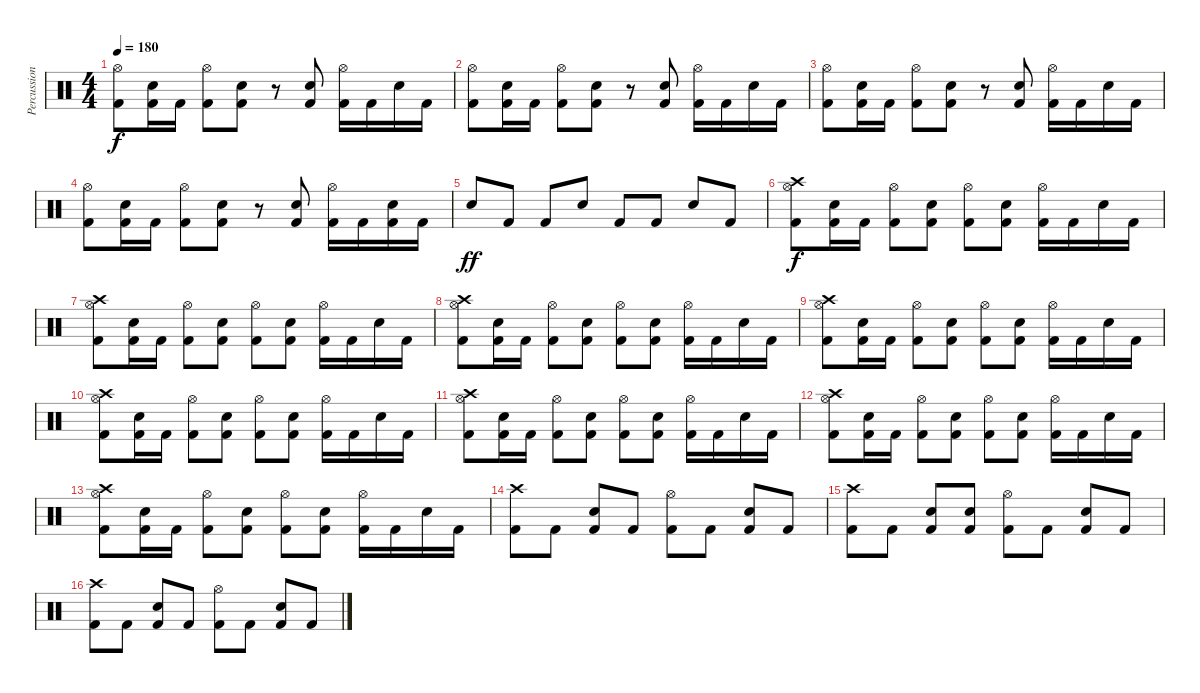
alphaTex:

\track ("Percussion" "Percussion") {instrument percussion}
\staff {score}
\articulation defaults
\ts (4 4)
\tempo 180
\clef neutral
\ks c
("Hi-Hat (open)" "Kick (hit) 2").8{dy f} ("Electric Snare (hit)" "Kick (hit) 2").16 "Kick (hit) 2".16 ("Hi-Hat (open)" "Kick (hit) 2").8 ("Electric Snare (hit)" "Kick (hit) 2").8 r.8 ("Electric Snare (hit)" "Kick (hit) 2").8 ("Hi-Hat (open)" "Kick (hit) 2").16 "Kick (hit) 2".16 "Electric Snare (hit)".16 "Kick (hit) 2".16 |
("Hi-Hat (open)" "Kick (hit) 2").8 ("Electric Snare (hit)" "Kick (hit) 2").16 "Kick (hit) 2".16 ("Hi-Hat (open)" "Kick (hit) 2").8 ("Electric Snare (hit)" "Kick (hit) 2").8 r.8 ("Electric Snare (hit)" "Kick (hit) 2").8 ("Hi-Hat (open)" "Kick (hit) 2").16 "Kick (hit) 2".16 "Electric Snare (hit)".16 "Kick (hit) 2".16 |
("Hi-Hat (open)" "Kick (hit) 2").8 ("Electric Snare (hit)" "Kick (hit) 2").16 "Kick (hit) 2".16 ("Hi-Hat (open)" "Kick (hit) 2").8 ("Electric Snare (hit)" "Kick (hit) 2").8 r.8 ("Electric Snare (hit)" "Kick (hit) 2").8 ("Hi-Hat (open)" "Kick (hit) 2").16 "Kick (hit) 2".16 "Electric Snare (hit)".16 "Kick (hit) 2".16 |
("Hi-Hat (open)" "Kick (hit) 2").8 ("Electric Snare (hit)" "Kick (hit) 2").16 "Kick (hit) 2".16 ("Hi-Hat (open)" "Kick (hit) 2").8 ("Electric Snare (hit)" "Kick (hit) 2").8 r.8 ("Electric Snare (hit)" "Kick (hit) 2").8 ("Hi-Hat (open)" "Kick (hit) 2").16 "Kick (hit) 2".16 ("Electric Snare (hit)" "Kick (hit) 2").16 "Kick (hit) 2".16 |
"Electric Snare (hit)".8{dy ff} "Kick (hit) 2".8 "Kick (hit) 2".8 "Electric Snare (hit)".8 "Kick (hit) 2".8 "Kick (hit) 2".8 "Electric Snare (hit)".8 "Kick (hit) 2".8 |
("Hi-Hat (open)" "Kick (hit) 2" "Crash high (hit)").8{dy f} ("Electric Snare (hit)" "Kick (hit) 2").16 "Kick (hit) 2".16 ("Hi-Hat (open)" "Kick (hit) 2").8 ("Electric Snare (hit)" "Kick (hit) 2").8 ("Hi-Hat (open)" "Kick (hit) 2").8 ("Electric Snare (hit)" "Kick (hit) 2").8 ("Hi-Hat (open)" "Kick (hit) 2").16 "Kick (hit) 2".16 "Electric Snare (hit)".16 "Kick (hit) 2".16 |
("Hi-Hat (open)" "Kick (hit) 2" "Crash high (hit)").8 ("Electric Snare (hit)" "Kick (hit) 2").16 "Kick (hit) 2".16 ("Hi-Hat (open)" "Kick (hit) 2").8 ("Electric Snare (hit)" "Kick (hit) 2").8 ("Hi-Hat (open)" "Kick (hit) 2").8 ("Electric Snare (hit)" "Kick (hit) 2").8 ("Hi-Hat (open)" "Kick (hit) 2").16 "Kick (hit) 2".16 "Electric Snare (hit)".16 "Kick (hit) 2".16 |
("Hi-Hat (open)" "Kick (hit) 2" "Crash high (hit)").8 ("Electric Snare (hit)" "Kick (hit) 2").16 "Kick (hit) 2".16 ("Hi-Hat (open)" "Kick (hit) 2").8 ("Electric Snare (hit)" "Kick (hit) 2").8 ("Hi-Hat (open)" "Kick (hit) 2").8 ("Electric Snare (hit)" "Kick (hit) 2").8 ("Hi-Hat (open)" "Kick (hit) 2").16 "Kick (hit) 2".16 "Electric Snare (hit)".16 "Kick (hit) 2".16 |
("Hi-Hat (open)" "Kick (hit) 2" "Crash high (hit)").8 ("Electric Snare (hit)" "Kick (hit) 2").16 "Kick (hit) 2".16 ("Hi-Hat (open)" "Kick (hit) 2").8 ("Electric Snare (hit)" "Kick (hit) 2").8 ("Hi-Hat (open)" "Kick (hit) 2").8 ("Electric Snare (hit)" "Kick (hit) 2").8 ("Hi-Hat (open)" "Kick (hit) 2").16 "Kick (hit) 2".16 "Electric Snare (hit)".16 "Kick (hit) 2".16 |
("Hi-Hat (open)" "Kick (hit) 2" "Crash high (hit)").8 ("Electric Snare (hit)" "Kick (hit) 2").16 "Kick (hit) 2".16 ("Hi-Hat (open)" "Kick (hit) 2").8 ("Electric Snare (hit)" "Kick (hit) 2").8 ("Hi-Hat (open)" "Kick (hit) 2").8 ("Electric Snare (hit)" "Kick (hit) 2").8 ("Hi-Hat (open)" "Kick (hit) 2").16 "Kick (hit) 2".16 "Electric Snare (hit)".16 "Kick (hit) 2".16 |
("Hi-Hat (open)" "Kick (hit) 2" "Crash high (hit)").8 ("Electric Snare (hit)" "Kick (hit) 2").16 "Kick (hit) 2".16 ("Hi-Hat (open)" "Kick (hit) 2").8 ("Electric Snare (hit)" "Kick (hit) 2").8 ("Hi-Hat (open)" "Kick (hit) 2").8 ("Electric Snare (hit)" "Kick (hit) 2").8 ("Hi-Hat (open)" "Kick (hit) 2").16 "Kick (hit) 2".16 "Electric Snare (hit)".16 "Kick (hit) 2".16 |
("Hi-Hat (open)" "Kick (hit) 2" "Crash high (hit)").8 ("Electric Snare (hit)" "Kick (hit) 2").16 "Kick (hit) 2".16 ("Hi-Hat (open)" "Kick (hit) 2").8 ("Electric Snare (hit)" "Kick (hit) 2").8 ("Hi-Hat (open)" "Kick (hit) 2").8 ("Electric Snare (hit)" "Kick (hit) 2").8 ("Hi-Hat (open)" "Kick (hit) 2").16 "Kick (hit) 2".16 "Electric Snare (hit)".16 "Kick (hit) 2".16 |
("Hi-Hat (open)" "Kick (hit) 2" "Crash high (hit)").8 ("Electric Snare (hit)" "Kick (hit) 2").16 "Kick (hit) 2".16 ("Hi-Hat (open)" "Kick (hit) 2").8 ("Electric Snare (hit)" "Kick (hit) 2").8 ("Hi-Hat (open)" "Kick (hit) 2").8 ("Electric Snare (hit)" "Kick (hit) 2").8 ("Hi-Hat (open)" "Kick (hit) 2").16 "Kick (hit) 2".16 "Electric Snare (hit)".16 "Kick (hit) 2".16 |
("Crash high (hit)" "Kick (hit) 2").8 "Kick (hit) 2".8 ("Electric Snare (hit)" "Kick (hit) 2").8 "Kick (hit) 2".8 ("Hi-Hat (open)" "Kick (hit) 2").8 "Kick (hit) 2".8 ("Electric Snare (hit)" "Kick (hit) 2").8 "Kick (hit) 2".8 |
("Crash high (hit)" "Kick (hit) 2").8 "Kick (hit) 2".8 ("Electric Snare (hit)" "Kick (hit) 2").8 ("Electric Snare (hit)" "Kick (hit) 2").8 ("Hi-Hat (open)" "Kick (hit) 2").8 "Kick (hit) 2".8 ("Electric Snare (hit)" "Kick (hit) 2").8 "Kick (hit) 2".8 |
("Crash high (hit)" "Kick (hit) 2").8 "Kick (hit) 2".8 ("Electric Snare (hit)" "Kick (hit) 2").8 "Kick (hit) 2".8 ("Hi-Hat (open)" "Kick (hit) 2").8 "Kick (hit) 2".8 ("Electric Snare (hit)" "Kick (hit) 2").8 "Kick (hit) 2".8
